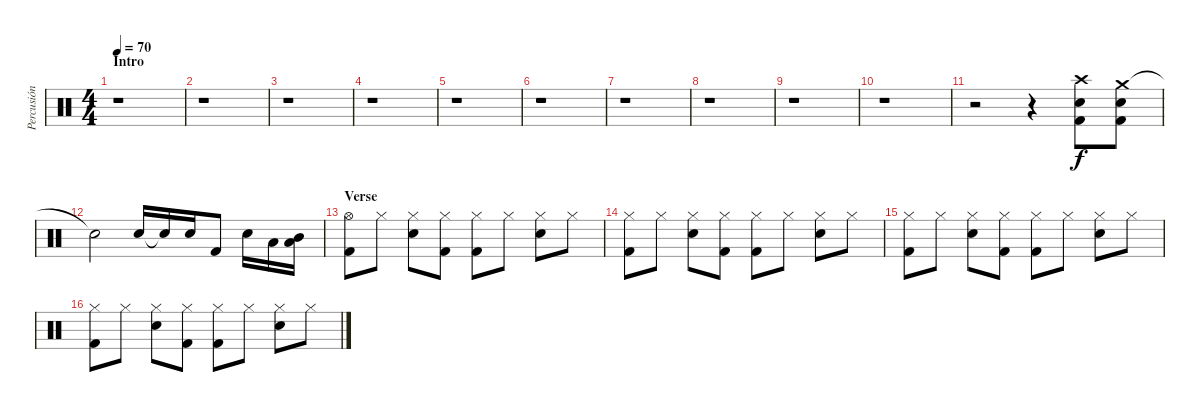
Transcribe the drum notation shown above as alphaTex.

\track ("Percusión" "Percusión") {instrument percussion}
\staff {score}
\articulation defaults
\ts (4 4)
\section ("" "Intro")
\tempo 70
\clef neutral
\ks c
r.1{dy f} |
r.1 |
r.1 |
r.1 |
r.1 |
r.1 |
r.1 |
r.1 |
r.1 |
r.1 |
r.2 r.4 ("Crash high (hit)" "Snare (hit) 2" "Kick (hit) 2").8 ("Crash medium (hit)" "Snare (hit) 2" "Kick (hit) 2").8 |
"Snare (hit)"{t}.2 "Snare (hit) 2".16 "Snare (hit) 2"{t}.16 "Snare (hit) 2".16 "Kick (hit) 2".8 "Snare (hit) 2".16 "Low Tom (hit)".16 ("Low Tom (hit)" "Mid Tom (hit)").16 |
\section ("" "Verse")
("Hi-Hat (open)" "Kick (hit) 2").8 "Hi-Hat (closed)".8 ("Hi-Hat (closed)" "Snare (hit) 2").8 ("Hi-Hat (closed)" "Kick (hit) 2").8 ("Hi-Hat (closed)" "Kick (hit) 2").8 "Hi-Hat (closed)".8 ("Hi-Hat (closed)" "Snare (hit) 2").8 "Hi-Hat (closed)".8 |
("Hi-Hat (closed)" "Kick (hit) 2").8 "Hi-Hat (closed)".8 ("Hi-Hat (closed)" "Snare (hit) 2").8 ("Hi-Hat (closed)" "Kick (hit) 2").8 ("Hi-Hat (closed)" "Kick (hit) 2").8 "Hi-Hat (closed)".8 ("Hi-Hat (closed)" "Snare (hit) 2").8 "Hi-Hat (closed)".8 |
("Hi-Hat (closed)" "Kick (hit) 2").8 "Hi-Hat (closed)".8 ("Hi-Hat (closed)" "Snare (hit) 2").8 ("Hi-Hat (closed)" "Kick (hit) 2").8 ("Hi-Hat (closed)" "Kick (hit) 2").8 "Hi-Hat (closed)".8 ("Hi-Hat (closed)" "Snare (hit) 2").8 "Hi-Hat (closed)".8 |
("Hi-Hat (closed)" "Kick (hit) 2").8 "Hi-Hat (closed)".8 ("Hi-Hat (closed)" "Snare (hit) 2").8 ("Hi-Hat (closed)" "Kick (hit) 2").8 ("Hi-Hat (closed)" "Kick (hit) 2").8 "Hi-Hat (closed)".8 ("Hi-Hat (closed)" "Snare (hit) 2").8 "Hi-Hat (closed)".8
